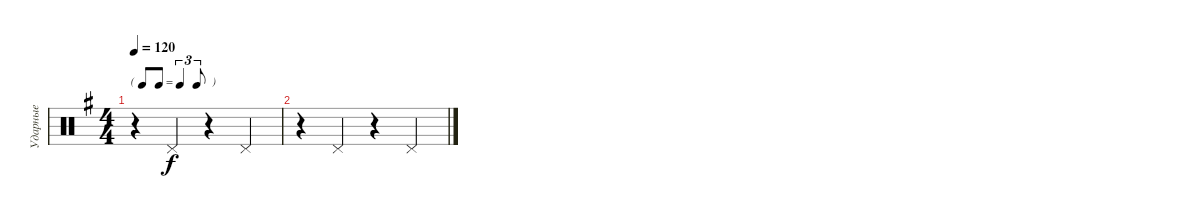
\track ("Ударные" "Ударные") {instrument percussion}
\staff {score}
\articulation defaults
\ts (4 4)
\tf triplet8th
\tempo 120
\clef neutral
\ks g
r.4{dy f} "Pedal Hi-Hat (hit)".4 r.4 "Pedal Hi-Hat (hit)".4 |
r.4 "Pedal Hi-Hat (hit)".4 r.4 "Pedal Hi-Hat (hit)".4
